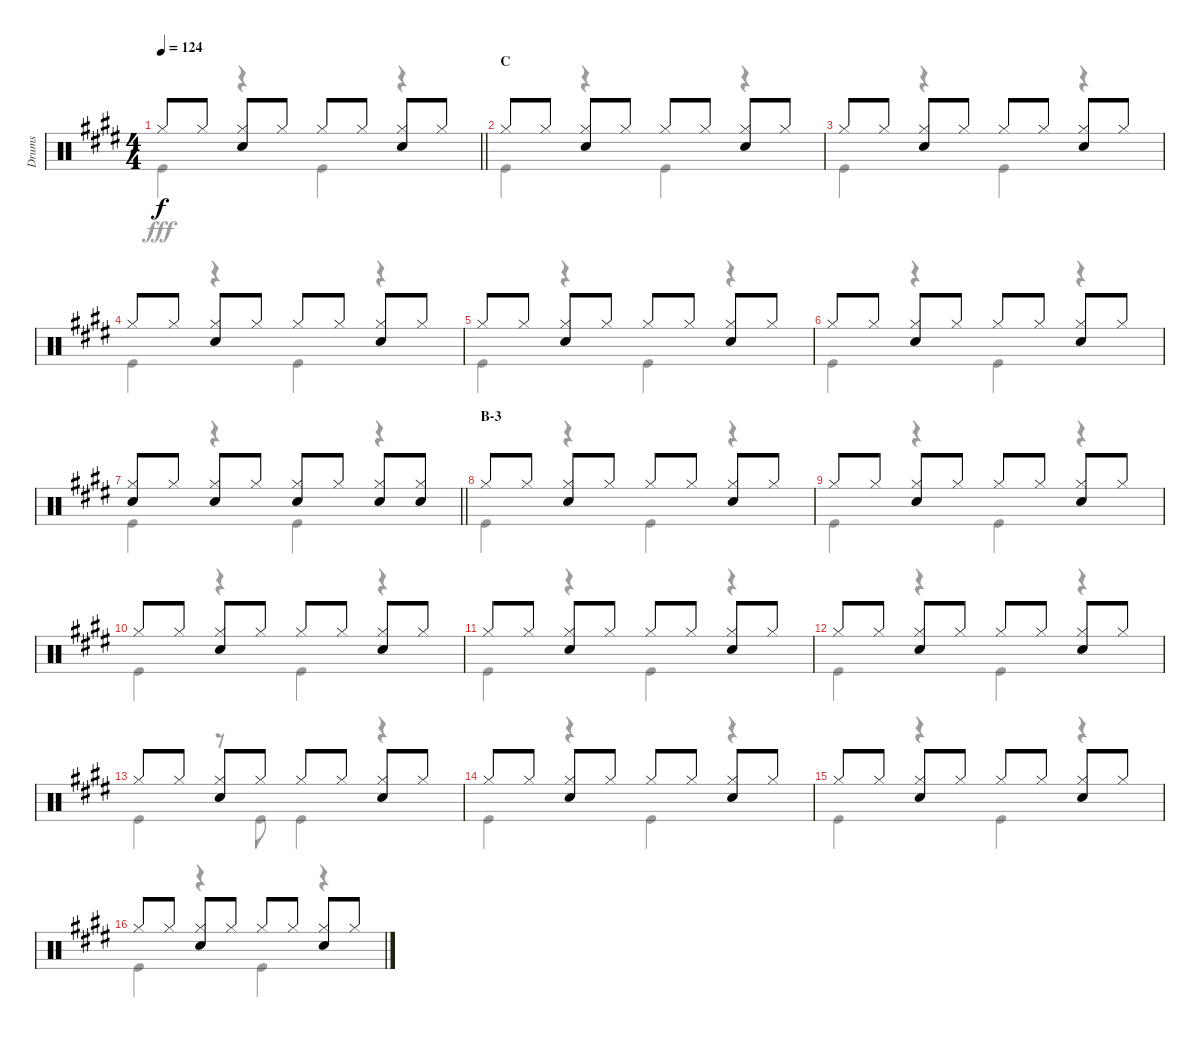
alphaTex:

\track ("Drums" "Drums") {instrument percussion}
\staff {score}
\articulation defaults
\voice
\ts (4 4)
\tempo 124
\clef neutral
\barLineRight lightlight
\ks e "Hi-Hat (closed)".8{dy f} "Hi-Hat (closed)".8
("Hi-Hat (closed)" "Snare (hit) 2").8 "Hi-Hat (closed)".8 "Hi-Hat (closed)".8 "Hi-Hat (closed)".8 ("Hi-Hat (closed)" "Snare (hit) 2").8 "Hi-Hat (closed)".8 |
\section ("" "C")
"Hi-Hat (closed)".8 "Hi-Hat (closed)".8 ("Hi-Hat (closed)" "Snare (hit) 2").8 "Hi-Hat (closed)".8 "Hi-Hat (closed)".8 "Hi-Hat (closed)".8 ("Hi-Hat (closed)" "Snare (hit) 2").8 "Hi-Hat (closed)".8 |
"Hi-Hat (closed)".8 "Hi-Hat (closed)".8 ("Hi-Hat (closed)" "Snare (hit) 2").8 "Hi-Hat (closed)".8 "Hi-Hat (closed)".8 "Hi-Hat (closed)".8 ("Hi-Hat (closed)" "Snare (hit) 2").8 "Hi-Hat (closed)".8 |
"Hi-Hat (closed)".8 "Hi-Hat (closed)".8 ("Hi-Hat (closed)" "Snare (hit) 2").8 "Hi-Hat (closed)".8 "Hi-Hat (closed)".8 "Hi-Hat (closed)".8 ("Hi-Hat (closed)" "Snare (hit) 2").8 "Hi-Hat (closed)".8 |
"Hi-Hat (closed)".8 "Hi-Hat (closed)".8 ("Hi-Hat (closed)" "Snare (hit) 2").8 "Hi-Hat (closed)".8 "Hi-Hat (closed)".8 "Hi-Hat (closed)".8 ("Hi-Hat (closed)" "Snare (hit) 2").8 "Hi-Hat (closed)".8 |
"Hi-Hat (closed)".8 "Hi-Hat (closed)".8 ("Hi-Hat (closed)" "Snare (hit) 2").8 "Hi-Hat (closed)".8 "Hi-Hat (closed)".8 "Hi-Hat (closed)".8 ("Hi-Hat (closed)" "Snare (hit) 2").8 "Hi-Hat (closed)".8 |
\barLineRight lightlight
("Hi-Hat (closed)" "Snare (hit) 2").8 "Hi-Hat (closed)".8 ("Hi-Hat (closed)" "Snare (hit) 2").8 "Hi-Hat (closed)".8 ("Hi-Hat (closed)" "Snare (hit) 2").8 "Hi-Hat (closed)".8 ("Hi-Hat (closed)" "Snare (hit) 2").8 ("Hi-Hat (closed)" "Snare (hit) 2").8 |
\section ("" "B-3")
"Hi-Hat (closed)".8 "Hi-Hat (closed)".8 ("Hi-Hat (closed)" "Snare (hit) 2").8 "Hi-Hat (closed)".8 "Hi-Hat (closed)".8 "Hi-Hat (closed)".8 ("Hi-Hat (closed)" "Snare (hit) 2").8 "Hi-Hat (closed)".8 |
"Hi-Hat (closed)".8 "Hi-Hat (closed)".8 ("Hi-Hat (closed)" "Snare (hit) 2").8 "Hi-Hat (closed)".8 "Hi-Hat (closed)".8 "Hi-Hat (closed)".8 ("Hi-Hat (closed)" "Snare (hit) 2").8 "Hi-Hat (closed)".8 |
"Hi-Hat (closed)".8 "Hi-Hat (closed)".8 ("Hi-Hat (closed)" "Snare (hit) 2").8 "Hi-Hat (closed)".8 "Hi-Hat (closed)".8 "Hi-Hat (closed)".8 ("Hi-Hat (closed)" "Snare (hit) 2").8 "Hi-Hat (closed)".8 |
"Hi-Hat (closed)".8 "Hi-Hat (closed)".8 ("Hi-Hat (closed)" "Snare (hit) 2").8 "Hi-Hat (closed)".8 "Hi-Hat (closed)".8 "Hi-Hat (closed)".8 ("Hi-Hat (closed)" "Snare (hit) 2").8 "Hi-Hat (closed)".8 |
"Hi-Hat (closed)".8 "Hi-Hat (closed)".8 ("Hi-Hat (closed)" "Snare (hit) 2").8 "Hi-Hat (closed)".8 "Hi-Hat (closed)".8 "Hi-Hat (closed)".8 ("Hi-Hat (closed)" "Snare (hit) 2").8 "Hi-Hat (closed)".8 |
"Hi-Hat (closed)".8 "Hi-Hat (closed)".8 ("Hi-Hat (closed)" "Snare (hit) 2").8 "Hi-Hat (closed)".8 "Hi-Hat (closed)".8 "Hi-Hat (closed)".8 ("Hi-Hat (closed)" "Snare (hit) 2").8 "Hi-Hat (closed)".8 |
"Hi-Hat (closed)".8 "Hi-Hat (closed)".8 ("Hi-Hat (closed)" "Snare (hit) 2").8 "Hi-Hat (closed)".8 "Hi-Hat (closed)".8 "Hi-Hat (closed)".8 ("Hi-Hat (closed)" "Snare (hit) 2").8 "Hi-Hat (closed)".8 |
"Hi-Hat (closed)".8 "Hi-Hat (closed)".8 ("Hi-Hat (closed)" "Snare (hit) 2").8 "Hi-Hat (closed)".8 "Hi-Hat (closed)".8 "Hi-Hat (closed)".8 ("Hi-Hat (closed)" "Snare (hit) 2").8 "Hi-Hat (closed)".8 |
"Hi-Hat (closed)".8 "Hi-Hat (closed)".8 ("Hi-Hat (closed)" "Snare (hit) 2").8 "Hi-Hat (closed)".8 "Hi-Hat (closed)".8 "Hi-Hat (closed)".8 ("Hi-Hat (closed)" "Snare (hit) 2").8 "Hi-Hat (closed)".8
\voice
\clef neutral
\ottava regular
\simile none
\barLineRight lightlight
\ks e "Kick (hit)".4{dy fff}
r.4 "Kick (hit)".4 r.4 |
"Kick (hit)".4 r.4 "Kick (hit)".4 r.4 |
"Kick (hit)".4 r.4 "Kick (hit)".4 r.4 |
"Kick (hit)".4 r.4 "Kick (hit)".4 r.4 |
"Kick (hit)".4 r.4 "Kick (hit)".4 r.4 |
"Kick (hit)".4 r.4 "Kick (hit)".4 r.4 |
\barLineRight lightlight "Kick (hit)".4
r.4 "Kick (hit)".4 r.4 |
"Kick (hit)".4 r.4 "Kick (hit)".4 r.4 |
"Kick (hit)".4 r.4 "Kick (hit)".4 r.4 |
"Kick (hit)".4 r.4 "Kick (hit)".4 r.4 |
"Kick (hit)".4 r.4 "Kick (hit)".4 r.4 |
"Kick (hit)".4 r.4 "Kick (hit)".4 r.4 |
"Kick (hit)".4 r.8 "Kick (hit)".8 "Kick (hit)".4 r.4 |
"Kick (hit)".4 r.4 "Kick (hit)".4 r.4 |
"Kick (hit)".4 r.4 "Kick (hit)".4 r.4 |
"Kick (hit)".4 r.4 "Kick (hit)".4 r.4
